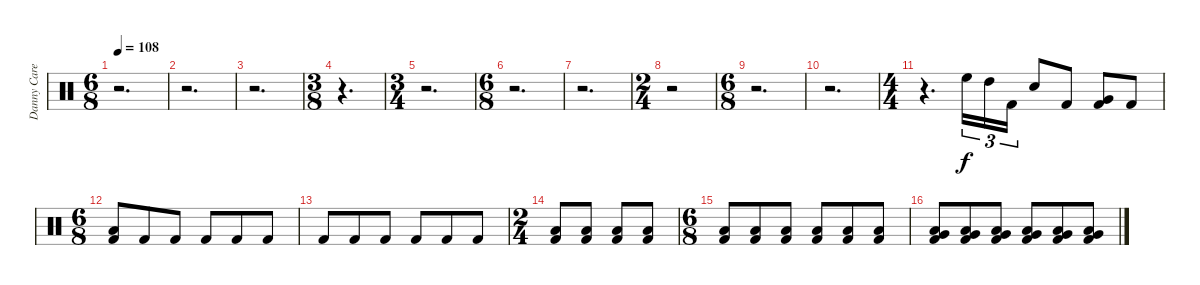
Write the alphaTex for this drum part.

\track ("Danny Carey" "Danny Care") {instrument percussion}
\staff {score}
\articulation defaults
\ts (6 8)
\tempo 108
\clef neutral
\ks c
r.2{d dy f} |
r.2{d} |
r.2{d} |
\ts (3 8)
r.4{d} |
\ts (3 4)
r.2{d} |
\ts (6 8)
r.2{d} |
r.2{d} |
\ts (2 4)
r.2 |
\ts (6 8)
r.2{d} |
r.2{d} |
\ts (4 4)
r.4{d} "High Floor Tom (hit)".16{tu (3 2)} "High Tom (hit)".16{tu (3 2)} "Kick (hit) 2".16{tu (3 2)} "Electric Snare (hit)".8 "Kick (hit) 2".8 ("Very Low Tom (hit)" "Kick (hit) 2").8 "Kick (hit) 2".8 |
\ts (6 8)
("Low Floor Tom (hit)" "Kick (hit) 2").8 "Kick (hit) 2".8 "Kick (hit) 2".8 "Kick (hit) 2".8 "Kick (hit) 2".8 "Kick (hit) 2".8 |
"Kick (hit) 2".8 "Kick (hit) 2".8 "Kick (hit) 2".8 "Kick (hit) 2".8 "Kick (hit) 2".8 "Kick (hit) 2".8 |
\ts (2 4)
("Low Floor Tom (hit)" "Kick (hit) 2").8 ("Low Floor Tom (hit)" "Kick (hit) 2").8 ("Low Floor Tom (hit)" "Kick (hit) 2").8 ("Low Floor Tom (hit)" "Kick (hit) 2").8 |
\ts (6 8)
("Low Floor Tom (hit)" "Kick (hit) 2").8 ("Low Floor Tom (hit)" "Kick (hit) 2").8 ("Low Floor Tom (hit)" "Kick (hit) 2").8 ("Low Floor Tom (hit)" "Kick (hit) 2").8 ("Low Floor Tom (hit)" "Kick (hit) 2").8 ("Low Floor Tom (hit)" "Kick (hit) 2").8 |
("Very Low Tom (hit)" "Low Floor Tom (hit)" "Kick (hit) 2").8 ("Very Low Tom (hit)" "Low Floor Tom (hit)" "Kick (hit) 2").8 ("Very Low Tom (hit)" "Low Floor Tom (hit)" "Kick (hit) 2").8 ("Very Low Tom (hit)" "Low Floor Tom (hit)" "Kick (hit) 2").8 ("Very Low Tom (hit)" "Low Floor Tom (hit)" "Kick (hit) 2").8 ("Very Low Tom (hit)" "Low Floor Tom (hit)" "Kick (hit) 2").8
